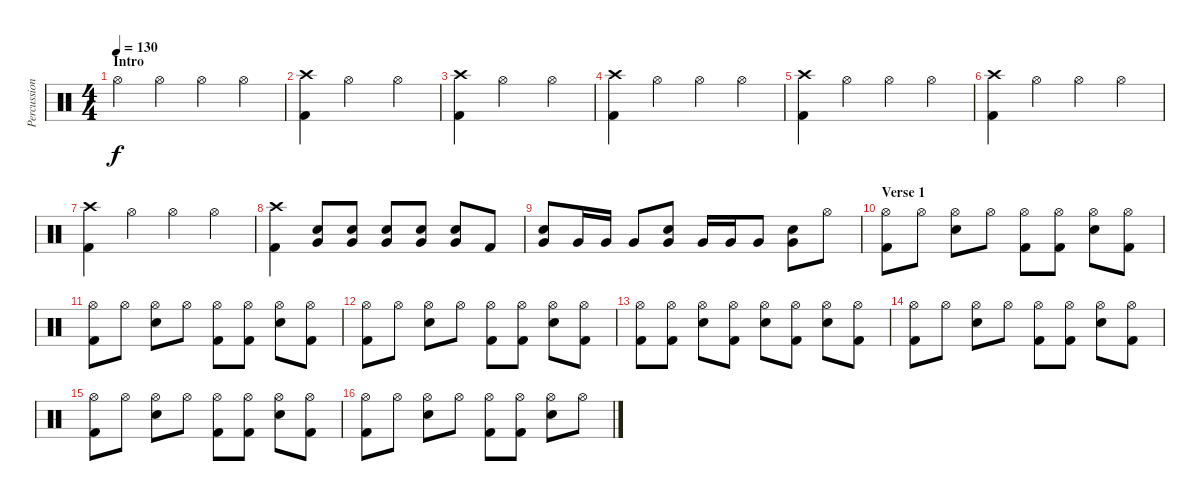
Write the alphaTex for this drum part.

\track ("Percussion" "Percussion") {instrument percussion}
\staff {score}
\articulation defaults
\ts (4 4)
\section ("" "Intro")
\tempo 130
\clef neutral
\ks c "Hi-Hat (open)".4{dy f} "Hi-Hat (open)".4 "Hi-Hat (open)".4 "Hi-Hat (open)".4
|
("Crash high (hit)" "Kick (hit) 2").4 "Hi-Hat (open)".2 "Hi-Hat (open)".4 |
("Crash high (hit)" "Kick (hit) 2").4 "Hi-Hat (open)".2 "Hi-Hat (open)".4 |
("Crash high (hit)" "Kick (hit) 2").4 "Hi-Hat (open)".4 "Hi-Hat (open)".4 "Hi-Hat (open)".4 |
("Crash high (hit)" "Kick (hit) 2").4 "Hi-Hat (open)".4 "Hi-Hat (open)".4 "Hi-Hat (open)".4 |
("Crash high (hit)" "Kick (hit) 2").4 "Hi-Hat (open)".4 "Hi-Hat (open)".4 "Hi-Hat (open)".4 |
("Crash high (hit)" "Kick (hit) 2").4 "Hi-Hat (open)".4 "Hi-Hat (open)".4 "Hi-Hat (open)".4 |
("Crash high (hit)" "Kick (hit) 2").4 ("Very Low Tom (hit)" "Electric Snare (hit)").8 ("Very Low Tom (hit)" "Electric Snare (hit)").8 ("Very Low Tom (hit)" "Electric Snare (hit)").8 ("Very Low Tom (hit)" "Electric Snare (hit)").8 ("Very Low Tom (hit)" "Electric Snare (hit)").8 "Kick (hit) 2".8 |
("Very Low Tom (hit)" "Electric Snare (hit)").8 "Very Low Tom (hit)".16 "Very Low Tom (hit)".16 "Very Low Tom (hit)".8 ("Very Low Tom (hit)" "Electric Snare (hit)").8 "Very Low Tom (hit)".16 "Very Low Tom (hit)".16 "Very Low Tom (hit)".8 ("Very Low Tom (hit)" "Electric Snare (hit)").8 "Hi-Hat (open)".8 |
\section ("" "Verse 1")
("Hi-Hat (open)" "Kick (hit) 2").8 "Hi-Hat (open)".8 ("Hi-Hat (open)" "Electric Snare (hit)").8 "Hi-Hat (open)".8 ("Hi-Hat (open)" "Kick (hit) 2").8 ("Hi-Hat (open)" "Kick (hit) 2").8 ("Hi-Hat (open)" "Electric Snare (hit)").8 ("Hi-Hat (open)" "Kick (hit) 2").8 |
("Hi-Hat (open)" "Kick (hit) 2").8 "Hi-Hat (open)".8 ("Hi-Hat (open)" "Electric Snare (hit)").8 "Hi-Hat (open)".8 ("Hi-Hat (open)" "Kick (hit) 2").8 ("Hi-Hat (open)" "Kick (hit) 2").8 ("Hi-Hat (open)" "Electric Snare (hit)").8 ("Hi-Hat (open)" "Kick (hit) 2").8 |
("Hi-Hat (open)" "Kick (hit) 2").8 "Hi-Hat (open)".8 ("Hi-Hat (open)" "Electric Snare (hit)").8 "Hi-Hat (open)".8 ("Hi-Hat (open)" "Kick (hit) 2").8 ("Hi-Hat (open)" "Kick (hit) 2").8 ("Hi-Hat (open)" "Electric Snare (hit)").8 ("Hi-Hat (open)" "Kick (hit) 2").8 |
("Hi-Hat (open)" "Kick (hit) 2").8 ("Hi-Hat (open)" "Kick (hit) 2").8 ("Hi-Hat (open)" "Electric Snare (hit)").8 ("Hi-Hat (open)" "Kick (hit) 2").8 ("Hi-Hat (open)" "Electric Snare (hit)").8 ("Hi-Hat (open)" "Kick (hit) 2").8 ("Hi-Hat (open)" "Electric Snare (hit)").8 ("Hi-Hat (open)" "Kick (hit) 2").8 |
("Hi-Hat (open)" "Kick (hit) 2").8 "Hi-Hat (open)".8 ("Hi-Hat (open)" "Electric Snare (hit)").8 "Hi-Hat (open)".8 ("Hi-Hat (open)" "Kick (hit) 2").8 ("Hi-Hat (open)" "Kick (hit) 2").8 ("Hi-Hat (open)" "Electric Snare (hit)").8 ("Hi-Hat (open)" "Kick (hit) 2").8 |
("Hi-Hat (open)" "Kick (hit) 2").8 "Hi-Hat (open)".8 ("Hi-Hat (open)" "Electric Snare (hit)").8 "Hi-Hat (open)".8 ("Hi-Hat (open)" "Kick (hit) 2").8 ("Hi-Hat (open)" "Kick (hit) 2").8 ("Hi-Hat (open)" "Electric Snare (hit)").8 ("Hi-Hat (open)" "Kick (hit) 2").8 |
("Hi-Hat (open)" "Kick (hit) 2").8 "Hi-Hat (open)".8 ("Hi-Hat (open)" "Electric Snare (hit)").8 "Hi-Hat (open)".8 ("Hi-Hat (open)" "Kick (hit) 2").8 ("Hi-Hat (open)" "Kick (hit) 2").8 ("Hi-Hat (open)" "Electric Snare (hit)").8 "Hi-Hat (open)".8
